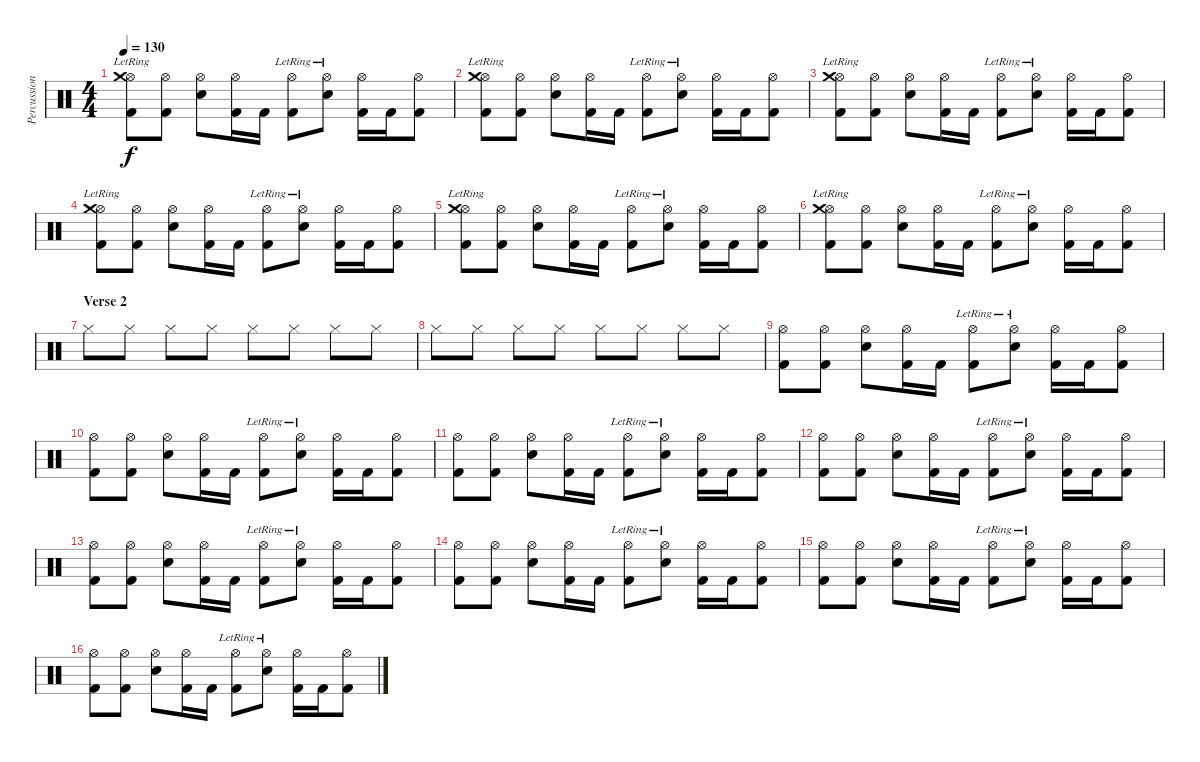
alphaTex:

\track ("Percussions" "Percussion") {instrument percussion}
\staff {score}
\articulation defaults
\ts (4 4)
\tempo 130
\clef neutral
\ks c
("Kick (hit) 2" "Hi-Hat (open)" "Crash medium (hit)"{lr}).8{dy f} ("Kick (hit) 2" "Hi-Hat (open)").8 ("Snare (hit) 2" "Hi-Hat (open)").8 ("Kick (hit) 2" "Hi-Hat (open)").16 "Kick (hit) 2".16 ("Kick (hit) 2" "Hi-Hat (open)"{lr}).8 ("Snare (hit) 2" "Hi-Hat (open)"{lr}).8 ("Kick (hit) 2" "Hi-Hat (open)").16 "Kick (hit) 2".16 ("Kick (hit) 2" "Hi-Hat (open)").8 |
("Kick (hit) 2" "Hi-Hat (open)" "Crash medium (hit)"{lr}).8 ("Kick (hit) 2" "Hi-Hat (open)").8 ("Snare (hit) 2" "Hi-Hat (open)").8 ("Kick (hit) 2" "Hi-Hat (open)").16 "Kick (hit) 2".16 ("Kick (hit) 2" "Hi-Hat (open)"{lr}).8 ("Snare (hit) 2" "Hi-Hat (open)"{lr}).8 ("Kick (hit) 2" "Hi-Hat (open)").16 "Kick (hit) 2".16 ("Kick (hit) 2" "Hi-Hat (open)").8 |
("Kick (hit) 2" "Hi-Hat (open)" "Crash medium (hit)"{lr}).8 ("Kick (hit) 2" "Hi-Hat (open)").8 ("Snare (hit) 2" "Hi-Hat (open)").8 ("Kick (hit) 2" "Hi-Hat (open)").16 "Kick (hit) 2".16 ("Kick (hit) 2" "Hi-Hat (open)"{lr}).8 ("Snare (hit) 2" "Hi-Hat (open)"{lr}).8 ("Kick (hit) 2" "Hi-Hat (open)").16 "Kick (hit) 2".16 ("Kick (hit) 2" "Hi-Hat (open)").8 |
("Kick (hit) 2" "Hi-Hat (open)" "Crash medium (hit)"{lr}).8 ("Kick (hit) 2" "Hi-Hat (open)").8 ("Snare (hit) 2" "Hi-Hat (open)").8 ("Kick (hit) 2" "Hi-Hat (open)").16 "Kick (hit) 2".16 ("Kick (hit) 2" "Hi-Hat (open)"{lr}).8 ("Snare (hit) 2" "Hi-Hat (open)"{lr}).8 ("Kick (hit) 2" "Hi-Hat (open)").16 "Kick (hit) 2".16 ("Kick (hit) 2" "Hi-Hat (open)").8 |
("Kick (hit) 2" "Hi-Hat (open)" "Crash medium (hit)"{lr}).8 ("Kick (hit) 2" "Hi-Hat (open)").8 ("Snare (hit) 2" "Hi-Hat (open)").8 ("Kick (hit) 2" "Hi-Hat (open)").16 "Kick (hit) 2".16 ("Kick (hit) 2" "Hi-Hat (open)"{lr}).8 ("Snare (hit) 2" "Hi-Hat (open)"{lr}).8 ("Kick (hit) 2" "Hi-Hat (open)").16 "Kick (hit) 2".16 ("Kick (hit) 2" "Hi-Hat (open)").8 |
("Kick (hit) 2" "Hi-Hat (open)" "Crash medium (hit)"{lr}).8 ("Kick (hit) 2" "Hi-Hat (open)").8 ("Snare (hit) 2" "Hi-Hat (open)").8 ("Kick (hit) 2" "Hi-Hat (open)").16 "Kick (hit) 2".16 ("Kick (hit) 2" "Hi-Hat (open)"{lr}).8 ("Snare (hit) 2" "Hi-Hat (open)"{lr}).8 ("Kick (hit) 2" "Hi-Hat (open)").16 "Kick (hit) 2".16 ("Kick (hit) 2" "Hi-Hat (open)").8 |
\section ("" "Verse 2")
"Hi-Hat (closed)".8 "Hi-Hat (closed)".8 "Hi-Hat (closed)".8 "Hi-Hat (closed)".8 "Hi-Hat (closed)".8 "Hi-Hat (closed)".8 "Hi-Hat (closed)".8 "Hi-Hat (closed)".8 |
"Hi-Hat (closed)".8 "Hi-Hat (closed)".8 "Hi-Hat (closed)".8 "Hi-Hat (closed)".8 "Hi-Hat (closed)".8 "Hi-Hat (closed)".8 "Hi-Hat (closed)".8 "Hi-Hat (closed)".8 |
("Kick (hit) 2" "Hi-Hat (open)").8 ("Kick (hit) 2" "Hi-Hat (open)").8 ("Snare (hit) 2" "Hi-Hat (open)").8 ("Kick (hit) 2" "Hi-Hat (open)").16 "Kick (hit) 2".16 ("Kick (hit) 2" "Hi-Hat (open)"{lr}).8 ("Snare (hit) 2" "Hi-Hat (open)"{lr}).8 ("Kick (hit) 2" "Hi-Hat (open)").16 "Kick (hit) 2".16 ("Kick (hit) 2" "Hi-Hat (open)").8 |
("Kick (hit) 2" "Hi-Hat (open)").8 ("Kick (hit) 2" "Hi-Hat (open)").8 ("Snare (hit) 2" "Hi-Hat (open)").8 ("Kick (hit) 2" "Hi-Hat (open)").16 "Kick (hit) 2".16 ("Kick (hit) 2" "Hi-Hat (open)"{lr}).8 ("Snare (hit) 2" "Hi-Hat (open)"{lr}).8 ("Kick (hit) 2" "Hi-Hat (open)").16 "Kick (hit) 2".16 ("Kick (hit) 2" "Hi-Hat (open)").8 |
("Kick (hit) 2" "Hi-Hat (open)").8 ("Kick (hit) 2" "Hi-Hat (open)").8 ("Snare (hit) 2" "Hi-Hat (open)").8 ("Kick (hit) 2" "Hi-Hat (open)").16 "Kick (hit) 2".16 ("Kick (hit) 2" "Hi-Hat (open)"{lr}).8 ("Snare (hit) 2" "Hi-Hat (open)"{lr}).8 ("Kick (hit) 2" "Hi-Hat (open)").16 "Kick (hit) 2".16 ("Kick (hit) 2" "Hi-Hat (open)").8 |
("Kick (hit) 2" "Hi-Hat (open)").8 ("Kick (hit) 2" "Hi-Hat (open)").8 ("Snare (hit) 2" "Hi-Hat (open)").8 ("Kick (hit) 2" "Hi-Hat (open)").16 "Kick (hit) 2".16 ("Kick (hit) 2" "Hi-Hat (open)"{lr}).8 ("Snare (hit) 2" "Hi-Hat (open)"{lr}).8 ("Kick (hit) 2" "Hi-Hat (open)").16 "Kick (hit) 2".16 ("Kick (hit) 2" "Hi-Hat (open)").8 |
("Kick (hit) 2" "Hi-Hat (open)").8 ("Kick (hit) 2" "Hi-Hat (open)").8 ("Snare (hit) 2" "Hi-Hat (open)").8 ("Kick (hit) 2" "Hi-Hat (open)").16 "Kick (hit) 2".16 ("Kick (hit) 2" "Hi-Hat (open)"{lr}).8 ("Snare (hit) 2" "Hi-Hat (open)"{lr}).8 ("Kick (hit) 2" "Hi-Hat (open)").16 "Kick (hit) 2".16 ("Kick (hit) 2" "Hi-Hat (open)").8 |
("Kick (hit) 2" "Hi-Hat (open)").8 ("Kick (hit) 2" "Hi-Hat (open)").8 ("Snare (hit) 2" "Hi-Hat (open)").8 ("Kick (hit) 2" "Hi-Hat (open)").16 "Kick (hit) 2".16 ("Kick (hit) 2" "Hi-Hat (open)"{lr}).8 ("Snare (hit) 2" "Hi-Hat (open)"{lr}).8 ("Kick (hit) 2" "Hi-Hat (open)").16 "Kick (hit) 2".16 ("Kick (hit) 2" "Hi-Hat (open)").8 |
("Kick (hit) 2" "Hi-Hat (open)").8 ("Kick (hit) 2" "Hi-Hat (open)").8 ("Snare (hit) 2" "Hi-Hat (open)").8 ("Kick (hit) 2" "Hi-Hat (open)").16 "Kick (hit) 2".16 ("Kick (hit) 2" "Hi-Hat (open)"{lr}).8 ("Snare (hit) 2" "Hi-Hat (open)"{lr}).8 ("Kick (hit) 2" "Hi-Hat (open)").16 "Kick (hit) 2".16 ("Kick (hit) 2" "Hi-Hat (open)").8 |
("Kick (hit) 2" "Hi-Hat (open)").8 ("Kick (hit) 2" "Hi-Hat (open)").8 ("Snare (hit) 2" "Hi-Hat (open)").8 ("Kick (hit) 2" "Hi-Hat (open)").16 "Kick (hit) 2".16 ("Kick (hit) 2" "Hi-Hat (open)"{lr}).8 ("Snare (hit) 2" "Hi-Hat (open)"{lr}).8 ("Kick (hit) 2" "Hi-Hat (open)").16 "Kick (hit) 2".16 ("Kick (hit) 2" "Hi-Hat (open)").8
